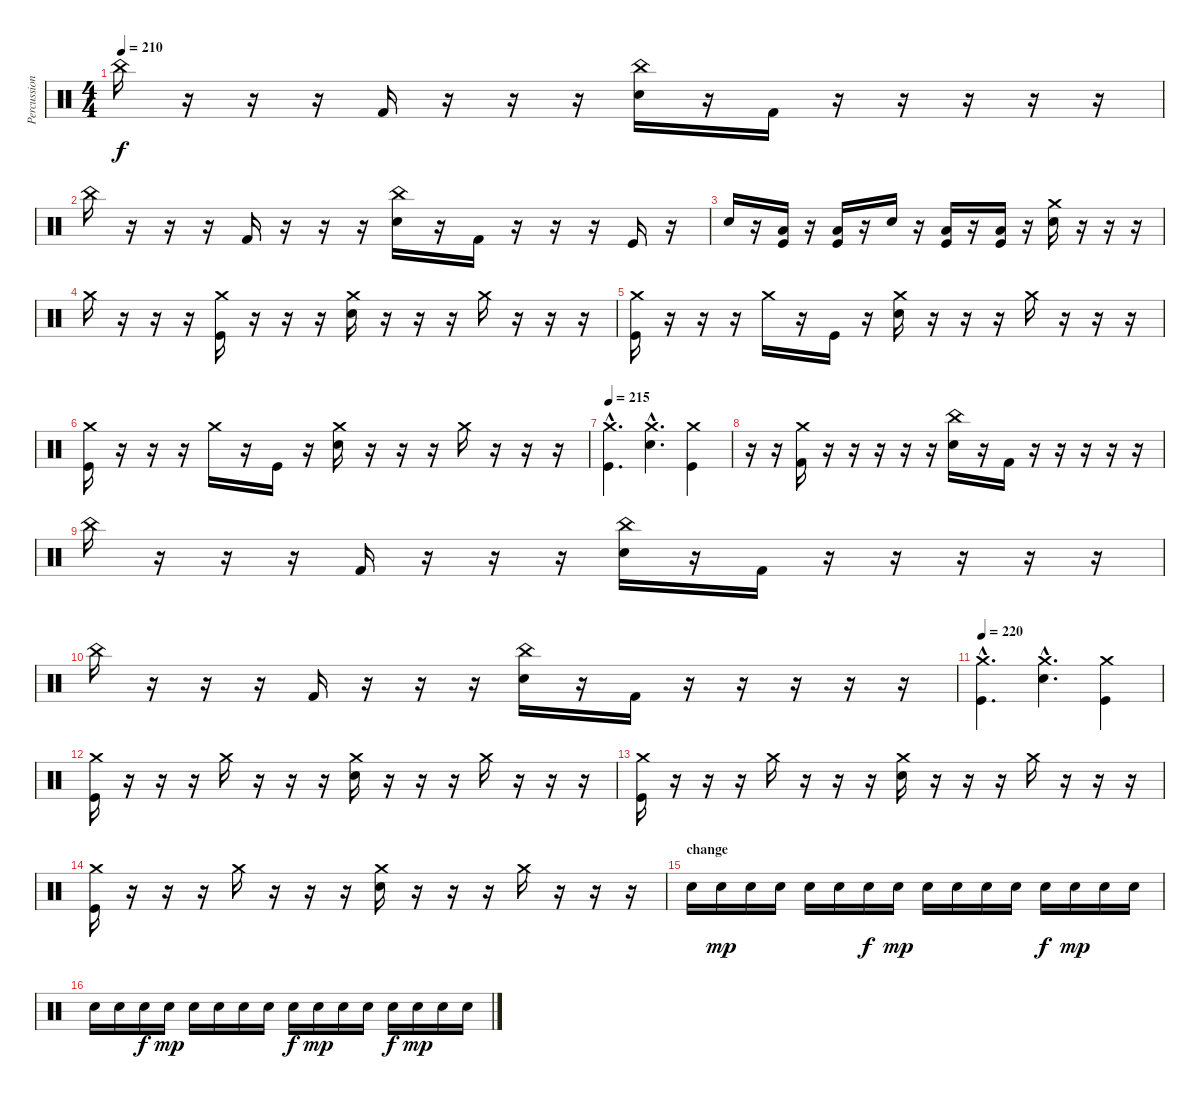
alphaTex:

\track ("Percussion" "Percussion") {instrument percussion}
\staff {score}
\articulation defaults
\ts (4 4)
\tempo 210
\clef neutral
\ks c "China (hit)".16{dy f}
r.16 r.16 r.16 "Kick (hit) 2".16 r.16 r.16 r.16 ("Electric Snare (hit)" "China (hit)").16 r.16 "Kick (hit) 2".16 r.16 r.16 r.16 r.16 r.16 |
"China (hit)".16 r.16 r.16 r.16 "Kick (hit) 2".16 r.16 r.16 r.16 ("Electric Snare (hit)" "China (hit)").16 r.16 "Kick (hit) 2".16 r.16 r.16 r.16 "Kick (hit)".16 r.16 |
"Electric Snare (hit)".16 r.16 ("Low Tom (hit)" "Kick (hit)").16 r.16 ("Low Tom (hit)" "Kick (hit)").16 r.16 "Electric Snare (hit)".16 r.16 ("Low Tom (hit)" "Kick (hit)").16 r.16 ("Low Tom (hit)" "Kick (hit)").16 r.16 ("Electric Snare (hit)" "Crash medium (hit)").16 r.16 r.16 r.16 |
"Crash medium (hit)".16 r.16 r.16 r.16 ("Kick (hit)" "Crash medium (hit)").16 r.16 r.16 r.16 ("Electric Snare (hit)" "Crash medium (hit)").16 r.16 r.16 r.16 "Crash medium (hit)".16 r.16 r.16 r.16 |
("Kick (hit)" "Crash medium (hit)").16 r.16 r.16 r.16 "Crash medium (hit)".16 r.16 "Kick (hit)".16 r.16 ("Electric Snare (hit)" "Crash medium (hit)").16 r.16 r.16 r.16 "Crash medium (hit)".16 r.16 r.16 r.16 |
("Kick (hit)" "Crash medium (hit)").16 r.16 r.16 r.16 "Crash medium (hit)".16 r.16 "Kick (hit)".16 r.16 ("Electric Snare (hit)" "Crash medium (hit)").16 r.16 r.16 r.16 "Crash medium (hit)".16 r.16 r.16 r.16 |
\tempo 215
("Crash medium (hit)"{hac} "Kick (hit)"{hac}).4{d} ("Crash medium (hit)"{hac} "Electric Snare (hit)"{hac}).4{d} ("Crash medium (hit)" "Kick (hit)").4 |
r.16 r.16 ("Crash medium (hit)" "Kick (hit) 2").16 r.16 r.16 r.16 r.16 r.16 ("Electric Snare (hit)" "China (hit)").16 r.16 "Kick (hit) 2".16 r.16 r.16 r.16 r.16 r.16 |
"China (hit)".16 r.16 r.16 r.16 "Kick (hit) 2".16 r.16 r.16 r.16 ("Electric Snare (hit)" "China (hit)").16 r.16 "Kick (hit) 2".16 r.16 r.16 r.16 r.16 r.16 |
"China (hit)".16 r.16 r.16 r.16 "Kick (hit) 2".16 r.16 r.16 r.16 ("Electric Snare (hit)" "China (hit)").16 r.16 "Kick (hit) 2".16 r.16 r.16 r.16 r.16 r.16 |
\tempo 220
("Crash medium (hit)"{hac} "Kick (hit)"{hac}).4{d} ("Crash medium (hit)"{hac} "Electric Snare (hit)"{hac}).4{d} ("Crash medium (hit)" "Kick (hit)").4 |
("Kick (hit)" "Crash medium (hit)").16 r.16 r.16 r.16 "Crash medium (hit)".16 r.16 r.16 r.16 ("Electric Snare (hit)" "Crash medium (hit)").16 r.16 r.16 r.16 "Crash medium (hit)".16 r.16 r.16 r.16 |
("Kick (hit)" "Crash medium (hit)").16 r.16 r.16 r.16 "Crash medium (hit)".16 r.16 r.16 r.16 ("Electric Snare (hit)" "Crash medium (hit)").16 r.16 r.16 r.16 "Crash medium (hit)".16 r.16 r.16 r.16 |
("Kick (hit)" "Crash medium (hit)").16 r.16 r.16 r.16 "Crash medium (hit)".16 r.16 r.16 r.16 ("Electric Snare (hit)" "Crash medium (hit)").16 r.16 r.16 r.16 "Crash medium (hit)".16 r.16 r.16 r.16 |
\section ("" "change")
"Electric Snare (hit)".16 "Electric Snare (hit)".16{dy mp} "Electric Snare (hit)".16 "Electric Snare (hit)".16 "Electric Snare (hit)".16 "Electric Snare (hit)".16 "Electric Snare (hit)".16{dy f} "Electric Snare (hit)".16{dy mp} "Electric Snare (hit)".16 "Electric Snare (hit)".16 "Electric Snare (hit)".16 "Electric Snare (hit)".16 "Electric Snare (hit)".16{dy f} "Electric Snare (hit)".16{dy mp} "Electric Snare (hit)".16 "Electric Snare (hit)".16 |
"Electric Snare (hit)".16 "Electric Snare (hit)".16 "Electric Snare (hit)".16{dy f} "Electric Snare (hit)".16{dy mp} "Electric Snare (hit)".16 "Electric Snare (hit)".16 "Electric Snare (hit)".16 "Electric Snare (hit)".16 "Electric Snare (hit)".16{dy f} "Electric Snare (hit)".16{dy mp} "Electric Snare (hit)".16 "Electric Snare (hit)".16 "Electric Snare (hit)".16{dy f} "Electric Snare (hit)".16{dy mp} "Electric Snare (hit)".16 "Electric Snare (hit)".16
